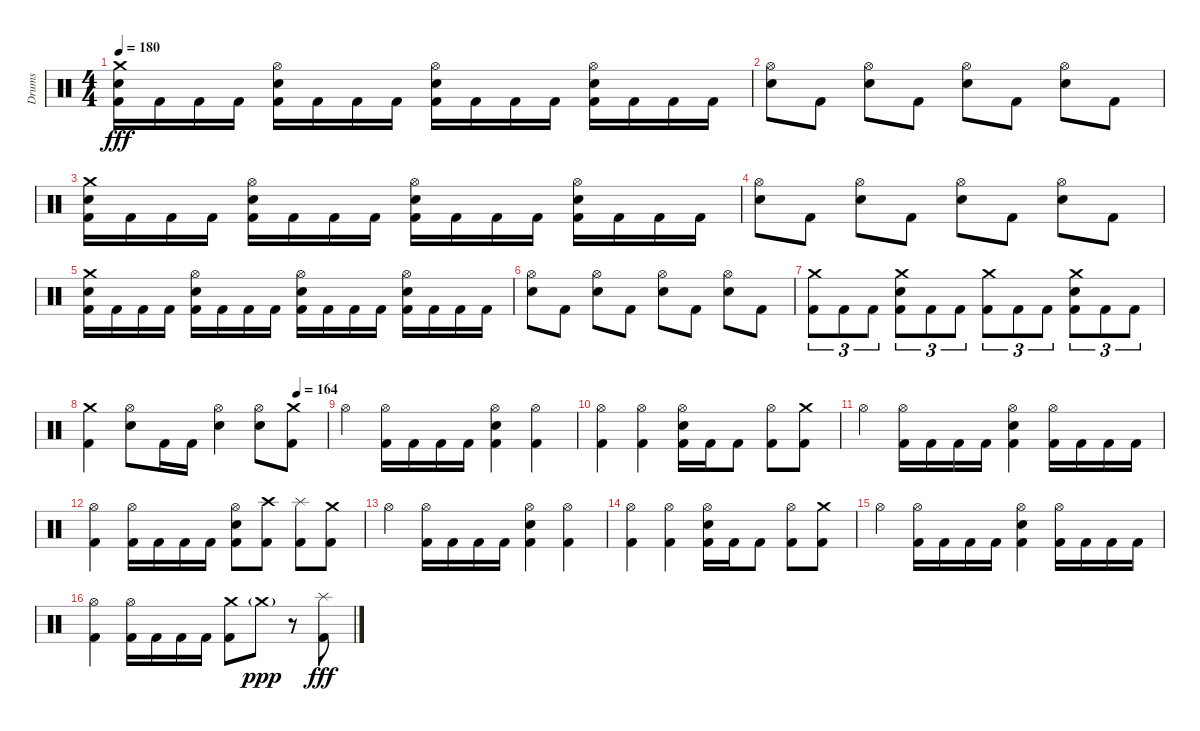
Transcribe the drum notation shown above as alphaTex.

\track ("Drums" "Drums") {instrument percussion}
\staff {score}
\articulation defaults
\ts (4 4)
\tempo 180
\clef neutral
\ks c
("Crash medium (hit)" "Electric Snare (hit)" "Kick (hit) 2").16{dy fff} "Kick (hit) 2".16 "Kick (hit) 2".16 "Kick (hit) 2".16 ("Hi-Hat (open)" "Electric Snare (hit)" "Kick (hit) 2").16 "Kick (hit) 2".16 "Kick (hit) 2".16 "Kick (hit) 2".16 ("Hi-Hat (open)" "Electric Snare (hit)" "Kick (hit) 2").16 "Kick (hit) 2".16 "Kick (hit) 2".16 "Kick (hit) 2".16 ("Hi-Hat (open)" "Electric Snare (hit)" "Kick (hit) 2").16 "Kick (hit) 2".16 "Kick (hit) 2".16 "Kick (hit) 2".16 |
("Hi-Hat (open)" "Electric Snare (hit)").8 "Kick (hit) 2".8 ("Hi-Hat (open)" "Electric Snare (hit)").8 "Kick (hit) 2".8 ("Hi-Hat (open)" "Electric Snare (hit)").8 "Kick (hit) 2".8 ("Hi-Hat (open)" "Electric Snare (hit)").8 "Kick (hit) 2".8 |
("Crash medium (hit)" "Electric Snare (hit)" "Kick (hit) 2").16 "Kick (hit) 2".16 "Kick (hit) 2".16 "Kick (hit) 2".16 ("Hi-Hat (open)" "Electric Snare (hit)" "Kick (hit) 2").16 "Kick (hit) 2".16 "Kick (hit) 2".16 "Kick (hit) 2".16 ("Hi-Hat (open)" "Electric Snare (hit)" "Kick (hit) 2").16 "Kick (hit) 2".16 "Kick (hit) 2".16 "Kick (hit) 2".16 ("Hi-Hat (open)" "Electric Snare (hit)" "Kick (hit) 2").16 "Kick (hit) 2".16 "Kick (hit) 2".16 "Kick (hit) 2".16 |
("Hi-Hat (open)" "Electric Snare (hit)").8 "Kick (hit) 2".8 ("Hi-Hat (open)" "Electric Snare (hit)").8 "Kick (hit) 2".8 ("Hi-Hat (open)" "Electric Snare (hit)").8 "Kick (hit) 2".8 ("Hi-Hat (open)" "Electric Snare (hit)").8 "Kick (hit) 2".8 |
("Crash medium (hit)" "Electric Snare (hit)" "Kick (hit) 2").16 "Kick (hit) 2".16 "Kick (hit) 2".16 "Kick (hit) 2".16 ("Hi-Hat (open)" "Electric Snare (hit)" "Kick (hit) 2").16 "Kick (hit) 2".16 "Kick (hit) 2".16 "Kick (hit) 2".16 ("Hi-Hat (open)" "Electric Snare (hit)" "Kick (hit) 2").16 "Kick (hit) 2".16 "Kick (hit) 2".16 "Kick (hit) 2".16 ("Hi-Hat (open)" "Electric Snare (hit)" "Kick (hit) 2").16 "Kick (hit) 2".16 "Kick (hit) 2".16 "Kick (hit) 2".16 |
("Hi-Hat (open)" "Electric Snare (hit)").8 "Kick (hit) 2".8 ("Hi-Hat (open)" "Electric Snare (hit)").8 "Kick (hit) 2".8 ("Hi-Hat (open)" "Electric Snare (hit)").8 "Kick (hit) 2".8 ("Hi-Hat (open)" "Electric Snare (hit)").8 "Kick (hit) 2".8 |
("Crash medium (hit)" "Kick (hit) 2").8{tu (3 2)} "Kick (hit) 2".8{tu (3 2)} "Kick (hit) 2".8{tu (3 2)} ("Crash medium (hit)" "Electric Snare (hit)" "Kick (hit) 2").8{tu (3 2)} "Kick (hit) 2".8{tu (3 2)} "Kick (hit) 2".8{tu (3 2)} ("Crash medium (hit)" "Kick (hit) 2").8{tu (3 2)} "Kick (hit) 2".8{tu (3 2)} "Kick (hit) 2".8{tu (3 2)} ("Crash medium (hit)" "Electric Snare (hit)" "Kick (hit) 2").8{tu (3 2)} "Kick (hit) 2".8{tu (3 2)} "Kick (hit) 2".8{tu (3 2)} |
\tempo (164 0.875)
("Crash medium (hit)" "Kick (hit) 2").4 ("Hi-Hat (open)" "Electric Snare (hit)").8 "Kick (hit) 2".16 "Kick (hit) 2".16 ("Hi-Hat (open)" "Electric Snare (hit)").4 ("Hi-Hat (open)" "Electric Snare (hit)").8 ("Crash medium (hit)" "Kick (hit) 2").8 |
"Hi-Hat (open)".4 ("Hi-Hat (open)" "Kick (hit) 2").16 "Kick (hit) 2".16 "Kick (hit) 2".16 "Kick (hit) 2".16 ("Hi-Hat (open)" "Electric Snare (hit)" "Kick (hit) 2").4 ("Hi-Hat (open)" "Kick (hit) 2").4 |
("Hi-Hat (open)" "Kick (hit) 2").4 ("Hi-Hat (open)" "Kick (hit) 2").4 ("Hi-Hat (open)" "Electric Snare (hit)" "Kick (hit) 2").16 "Kick (hit) 2".16 "Kick (hit) 2".8 ("Hi-Hat (open)" "Kick (hit) 2").8 ("Crash medium (hit)" "Kick (hit) 2").8 |
"Hi-Hat (open)".4 ("Hi-Hat (open)" "Kick (hit) 2").16 "Kick (hit) 2".16 "Kick (hit) 2".16 "Kick (hit) 2".16 ("Hi-Hat (open)" "Electric Snare (hit)" "Kick (hit) 2").4 ("Hi-Hat (open)" "Kick (hit) 2").16 "Kick (hit) 2".16 "Kick (hit) 2".16 "Kick (hit) 2".16 |
("Hi-Hat (open)" "Kick (hit) 2").4 ("Hi-Hat (open)" "Kick (hit) 2").16 "Kick (hit) 2".16 "Kick (hit) 2".16 "Kick (hit) 2".16 ("Hi-Hat (open)" "Electric Snare (hit)" "Kick (hit) 2").8 ("Crash high (hit)" "Kick (hit) 2").8 ("Splash (hit)" "Kick (hit) 2").8 ("Crash medium (hit)" "Kick (hit) 2").8 |
"Hi-Hat (open)".4 ("Hi-Hat (open)" "Kick (hit) 2").16 "Kick (hit) 2".16 "Kick (hit) 2".16 "Kick (hit) 2".16 ("Hi-Hat (open)" "Electric Snare (hit)" "Kick (hit) 2").4 ("Hi-Hat (open)" "Kick (hit) 2").4 |
("Hi-Hat (open)" "Kick (hit) 2").4 ("Hi-Hat (open)" "Kick (hit) 2").4 ("Hi-Hat (open)" "Electric Snare (hit)" "Kick (hit) 2").16 "Kick (hit) 2".16 "Kick (hit) 2".8 ("Hi-Hat (open)" "Kick (hit) 2").8 ("Crash medium (hit)" "Kick (hit) 2").8 |
"Hi-Hat (open)".4 ("Hi-Hat (open)" "Kick (hit) 2").16 "Kick (hit) 2".16 "Kick (hit) 2".16 "Kick (hit) 2".16 ("Hi-Hat (open)" "Electric Snare (hit)" "Kick (hit) 2").4 ("Hi-Hat (open)" "Kick (hit) 2").16 "Kick (hit) 2".16 "Kick (hit) 2".16 "Kick (hit) 2".16 |
("Hi-Hat (open)" "Kick (hit) 2").4 ("Hi-Hat (open)" "Kick (hit) 2").16 "Kick (hit) 2".16 "Kick (hit) 2".16 "Kick (hit) 2".16 ("Crash medium (hit)" "Kick (hit) 2").8 "Crash medium (hit)"{g}.8{dy ppp} r.8 ("Splash (hit)" "Kick (hit) 2").8{dy fff}
